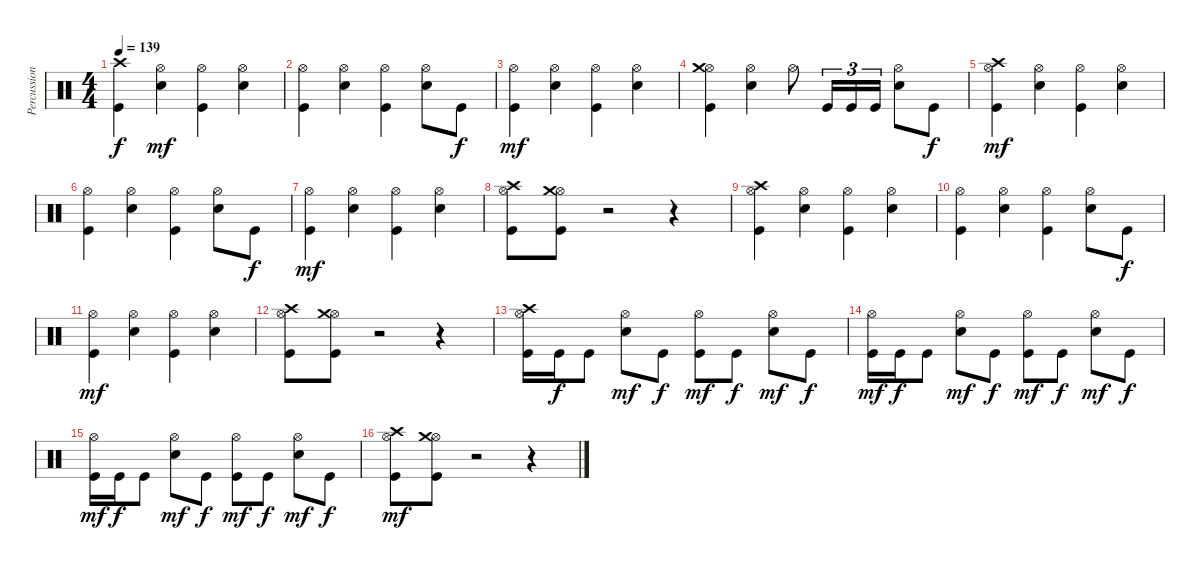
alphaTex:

\track ("Percussions" "Percussion") {instrument percussion}
\staff {score}
\articulation defaults
\ts (4 4)
\tempo 139
\clef neutral
\ks c
("Kick (hit)" "Crash high (hit)").4{dy f} ("Electric Snare (hit)" "Hi-Hat (open)").4{dy mf} ("Kick (hit)" "Hi-Hat (open)").4 ("Electric Snare (hit)" "Hi-Hat (open)").4 |
("Kick (hit)" "Hi-Hat (open)").4 ("Electric Snare (hit)" "Hi-Hat (open)").4 ("Kick (hit)" "Hi-Hat (open)").4 ("Electric Snare (hit)" "Hi-Hat (open)").8 "Kick (hit)".8{dy f} |
("Kick (hit)" "Hi-Hat (open)").4{dy mf} ("Electric Snare (hit)" "Hi-Hat (open)").4 ("Kick (hit)" "Hi-Hat (open)").4 ("Electric Snare (hit)" "Hi-Hat (open)").4 |
("Kick (hit)" "Hi-Hat (open)" "Crash medium (hit)").4 ("Electric Snare (hit)" "Hi-Hat (open)").4 "Hi-Hat (open)".8 "Kick (hit)".16{tu (3 2)} "Kick (hit)".16{tu (3 2)} "Kick (hit)".16{tu (3 2)} ("Electric Snare (hit)" "Hi-Hat (open)").8 "Kick (hit)".8{dy f} |
("Kick (hit)" "Hi-Hat (open)" "Crash high (hit)").4{dy mf} ("Electric Snare (hit)" "Hi-Hat (open)").4 ("Kick (hit)" "Hi-Hat (open)").4 ("Electric Snare (hit)" "Hi-Hat (open)").4 |
("Kick (hit)" "Hi-Hat (open)").4 ("Electric Snare (hit)" "Hi-Hat (open)").4 ("Kick (hit)" "Hi-Hat (open)").4 ("Electric Snare (hit)" "Hi-Hat (open)").8 "Kick (hit)".8{dy f} |
("Kick (hit)" "Hi-Hat (open)").4{dy mf} ("Electric Snare (hit)" "Hi-Hat (open)").4 ("Kick (hit)" "Hi-Hat (open)").4 ("Electric Snare (hit)" "Hi-Hat (open)").4 |
("Kick (hit)" "Hi-Hat (open)" "Crash high (hit)").8 ("Kick (hit)" "Hi-Hat (open)" "Crash medium (hit)").8 r.2 r.4 |
("Kick (hit)" "Hi-Hat (open)" "Crash high (hit)").4 ("Electric Snare (hit)" "Hi-Hat (open)").4 ("Kick (hit)" "Hi-Hat (open)").4 ("Electric Snare (hit)" "Hi-Hat (open)").4 |
("Kick (hit)" "Hi-Hat (open)").4 ("Electric Snare (hit)" "Hi-Hat (open)").4 ("Kick (hit)" "Hi-Hat (open)").4 ("Electric Snare (hit)" "Hi-Hat (open)").8 "Kick (hit)".8{dy f} |
("Kick (hit)" "Hi-Hat (open)").4{dy mf} ("Electric Snare (hit)" "Hi-Hat (open)").4 ("Kick (hit)" "Hi-Hat (open)").4 ("Electric Snare (hit)" "Hi-Hat (open)").4 |
("Kick (hit)" "Hi-Hat (open)" "Crash high (hit)").8 ("Kick (hit)" "Hi-Hat (open)" "Crash medium (hit)").8 r.2 r.4 |
("Kick (hit)" "Hi-Hat (open)" "Crash high (hit)").16 "Kick (hit)".16{dy f} "Kick (hit)".8 ("Electric Snare (hit)" "Hi-Hat (open)").8{dy mf} "Kick (hit)".8{dy f} ("Kick (hit)" "Hi-Hat (open)").8{dy mf} "Kick (hit)".8{dy f} ("Electric Snare (hit)" "Hi-Hat (open)").8{dy mf} "Kick (hit)".8{dy f} |
("Kick (hit)" "Hi-Hat (open)").16{dy mf} "Kick (hit)".16{dy f} "Kick (hit)".8 ("Electric Snare (hit)" "Hi-Hat (open)").8{dy mf} "Kick (hit)".8{dy f} ("Kick (hit)" "Hi-Hat (open)").8{dy mf} "Kick (hit)".8{dy f} ("Electric Snare (hit)" "Hi-Hat (open)").8{dy mf} "Kick (hit)".8{dy f} |
("Kick (hit)" "Hi-Hat (open)").16{dy mf} "Kick (hit)".16{dy f} "Kick (hit)".8 ("Electric Snare (hit)" "Hi-Hat (open)").8{dy mf} "Kick (hit)".8{dy f} ("Kick (hit)" "Hi-Hat (open)").8{dy mf} "Kick (hit)".8{dy f} ("Electric Snare (hit)" "Hi-Hat (open)").8{dy mf} "Kick (hit)".8{dy f} |
("Kick (hit)" "Hi-Hat (open)" "Crash high (hit)").8{dy mf} ("Kick (hit)" "Hi-Hat (open)" "Crash medium (hit)").8 r.2 r.4
